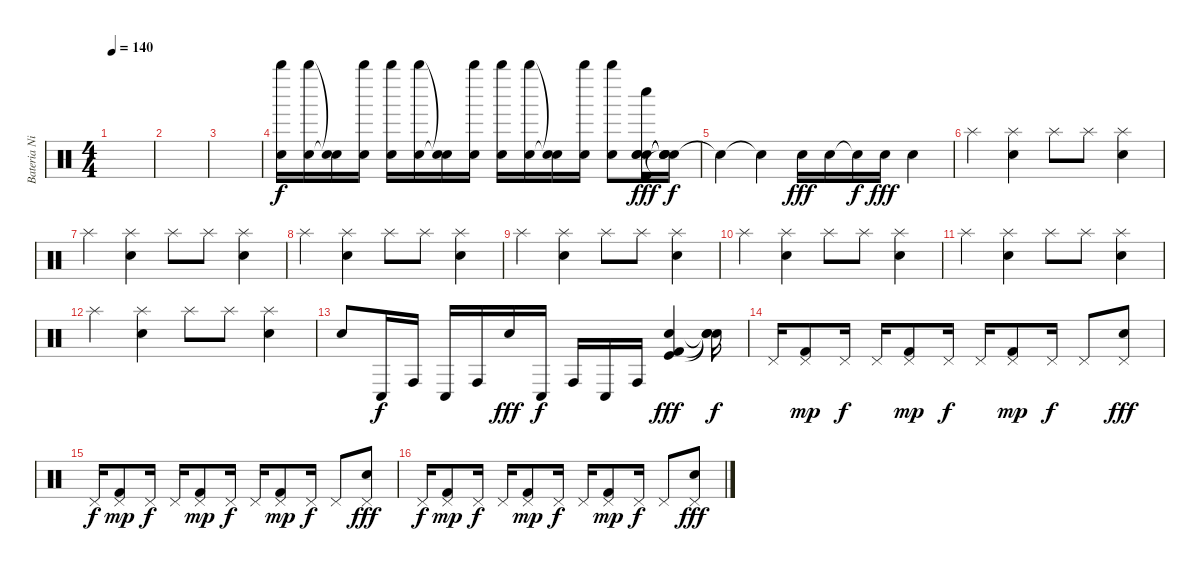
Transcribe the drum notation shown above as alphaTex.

\track ("Bateria Nicolas Cabrera" "Bateria Ni") {instrument percussion}
\staff {score}
\articulation defaults
\ts (4 4)
\tempo 140
\clef neutral
\ks c
|
|
|
("Snare (hit) 2" "Whistle high (hit)").16 ("Snare (hit) 2" "Whistle high (hit)").16{dy f} ("Snare (hit)"{t} "Snare (hit)"{t}).16 ("Snare (hit) 2" "Whistle high (hit)").16 ("Snare (hit) 2" "Whistle high (hit)").16 ("Snare (hit) 2" "Whistle high (hit)").16 ("Snare (hit)"{t} "Snare (hit)"{t}).16 ("Snare (hit) 2" "Whistle high (hit)").16 ("Snare (hit) 2" "Whistle high (hit)").16 ("Snare (hit) 2" "Whistle high (hit)").16 ("Snare (hit)"{t} "Snare (hit)"{t}).16 ("Snare (hit) 2" "Whistle high (hit)").16 ("Snare (hit) 2" "Whistle high (hit)").8 ("Snare (hit) 2" "Kick (hit)" "Electric Snare (hit)" "Electric Snare (hit)" "Whistle low (hit)").16{dy fff} ("Snare (hit)"{t} "Snare (hit)"{t} "Snare (hit)"{t} "Snare (hit)"{t}).16{dy f} |
"Snare (hit)"{t}.4 "Snare (hit)"{t}.4 "Snare (hit) 2".16{dy fff} "Snare (hit) 2".16 "Snare (hit)"{t}.16{dy f} "Snare (hit) 2".16{dy fff} "Snare (hit) 2".4 |
"Splash (hit)".4 ("Splash (hit)" "Snare (hit) 2").4 "Splash (hit)".8 "Splash (hit)".8 ("Splash (hit)" "Snare (hit) 2").4 |
"Splash (hit)".4 ("Splash (hit)" "Snare (hit) 2").4 "Splash (hit)".8 "Splash (hit)".8 ("Splash (hit)" "Snare (hit) 2").4 |
"Splash (hit)".4 ("Splash (hit)" "Snare (hit) 2").4 "Splash (hit)".8 "Splash (hit)".8 ("Splash (hit)" "Snare (hit) 2").4 |
"Splash (hit)".4 ("Splash (hit)" "Snare (hit) 2").4 "Splash (hit)".8 "Splash (hit)".8 ("Splash (hit)" "Snare (hit) 2").4 |
"Splash (hit)".4 ("Splash (hit)" "Snare (hit) 2").4 "Splash (hit)".8 "Splash (hit)".8 ("Splash (hit)" "Snare (hit) 2").4 |
"Splash (hit)".4 ("Splash (hit)" "Snare (hit) 2").4 "Splash (hit)".8 "Splash (hit)".8 ("Splash (hit)" "Snare (hit) 2").4 |
"Splash (hit)".4 ("Splash (hit)" "Snare (hit) 2").4 "Splash (hit)".8 "Splash (hit)".8 ("Splash (hit)" "Snare (hit) 2").4 |
"Snare (hit) 2".8 "Conga low (hit)".16{dy f} "Conga high (hit)".16 "Conga low (hit)".16 "Conga high (hit)".16 "Snare (hit) 2".16{dy fff} "Conga low (hit)".16{dy f} "Conga high (hit)".16 "Conga low (hit)".16 "Conga high (hit)".16 ("Snare (hit) 2" "Kick (hit) 2" "Kick (hit)").4{dy fff} ("Snare (hit)"{t} "Snare (hit)"{t} "Snare (hit)"{t}).16{dy f} |
"Pedal Hi-Hat (hit)".16 ("Pedal Hi-Hat (hit)" "Kick (hit) 2").8{dy mp} "Pedal Hi-Hat (hit)".16{dy f} "Pedal Hi-Hat (hit)".16 ("Pedal Hi-Hat (hit)" "Kick (hit) 2").8{dy mp} "Pedal Hi-Hat (hit)".16{dy f} "Pedal Hi-Hat (hit)".16 ("Pedal Hi-Hat (hit)" "Kick (hit) 2").8{dy mp} "Pedal Hi-Hat (hit)".16{dy f} "Pedal Hi-Hat (hit)".8 ("Pedal Hi-Hat (hit)" "Electric Snare (hit)").8{dy fff} |
"Pedal Hi-Hat (hit)".16{dy f} ("Pedal Hi-Hat (hit)" "Kick (hit) 2").8{dy mp} "Pedal Hi-Hat (hit)".16{dy f} "Pedal Hi-Hat (hit)".16 ("Pedal Hi-Hat (hit)" "Kick (hit) 2").8{dy mp} "Pedal Hi-Hat (hit)".16{dy f} "Pedal Hi-Hat (hit)".16 ("Pedal Hi-Hat (hit)" "Kick (hit) 2").8{dy mp} "Pedal Hi-Hat (hit)".16{dy f} "Pedal Hi-Hat (hit)".8 ("Pedal Hi-Hat (hit)" "Electric Snare (hit)").8{dy fff} |
"Pedal Hi-Hat (hit)".16{dy f} ("Pedal Hi-Hat (hit)" "Kick (hit) 2").8{dy mp} "Pedal Hi-Hat (hit)".16{dy f} "Pedal Hi-Hat (hit)".16 ("Pedal Hi-Hat (hit)" "Kick (hit) 2").8{dy mp} "Pedal Hi-Hat (hit)".16{dy f} "Pedal Hi-Hat (hit)".16 ("Pedal Hi-Hat (hit)" "Kick (hit) 2").8{dy mp} "Pedal Hi-Hat (hit)".16{dy f} "Pedal Hi-Hat (hit)".8 ("Pedal Hi-Hat (hit)" "Electric Snare (hit)").8{dy fff}
